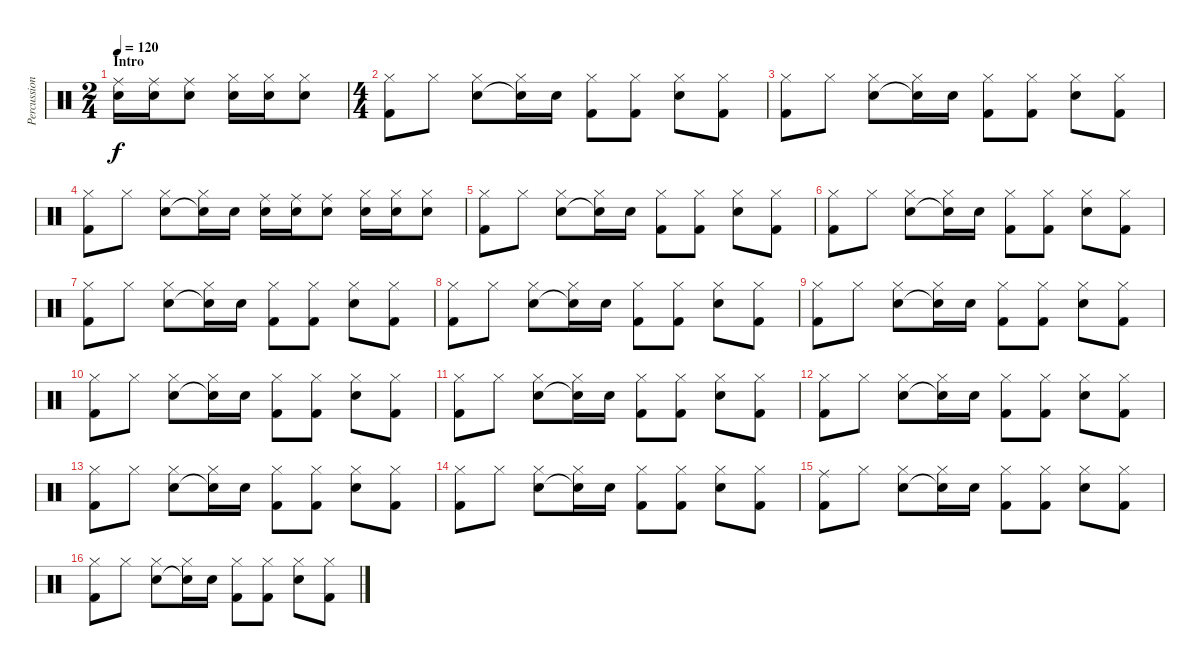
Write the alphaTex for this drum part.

\track ("Percussions" "Percussion") {instrument percussion}
\staff {score}
\articulation defaults
\ts (2 4)
\section ("" "Intro")
\tempo 120
\clef neutral
\ks c
("Ride (middle)" "Snare (hit) 2").16{dy f} ("Ride (middle)" "Snare (hit) 2").16 ("Ride (middle)" "Snare (hit) 2").8 ("Hi-Hat (closed)" "Snare (hit) 2").16 ("Hi-Hat (closed)" "Snare (hit) 2").16 ("Hi-Hat (closed)" "Snare (hit) 2").8 |
\ts (4 4)
("Hi-Hat (closed)" "Kick (hit) 2").8 "Hi-Hat (closed)".8 ("Hi-Hat (closed)" "Snare (hit) 2").8 ("Hi-Hat (closed)" "Snare (hit)"{t}).16 "Snare (hit) 2".16 ("Hi-Hat (closed)" "Kick (hit) 2").8 ("Hi-Hat (closed)" "Kick (hit) 2").8 ("Hi-Hat (closed)" "Snare (hit) 2").8 ("Hi-Hat (closed)" "Kick (hit) 2").8 |
("Hi-Hat (closed)" "Kick (hit) 2").8 "Hi-Hat (closed)".8 ("Hi-Hat (closed)" "Snare (hit) 2").8 ("Hi-Hat (closed)" "Snare (hit)"{t}).16 "Snare (hit) 2".16 ("Hi-Hat (closed)" "Kick (hit) 2").8 ("Hi-Hat (closed)" "Kick (hit) 2").8 ("Hi-Hat (closed)" "Snare (hit) 2").8 ("Hi-Hat (closed)" "Kick (hit) 2").8 |
("Hi-Hat (closed)" "Kick (hit) 2").8 "Hi-Hat (closed)".8 ("Hi-Hat (closed)" "Snare (hit) 2").8 ("Hi-Hat (closed)" "Snare (hit)"{t}).16 "Snare (hit) 2".16 ("Ride (middle)" "Snare (hit) 2").16 ("Ride (middle)" "Snare (hit) 2").16 ("Ride (middle)" "Snare (hit) 2").8 ("Hi-Hat (closed)" "Snare (hit) 2").16 ("Hi-Hat (closed)" "Snare (hit) 2").16 ("Hi-Hat (closed)" "Snare (hit) 2").8 |
("Hi-Hat (closed)" "Kick (hit) 2").8 "Hi-Hat (closed)".8 ("Hi-Hat (closed)" "Snare (hit) 2").8 ("Hi-Hat (closed)" "Snare (hit)"{t}).16 "Snare (hit) 2".16 ("Hi-Hat (closed)" "Kick (hit) 2").8 ("Hi-Hat (closed)" "Kick (hit) 2").8 ("Hi-Hat (closed)" "Snare (hit) 2").8 ("Hi-Hat (closed)" "Kick (hit) 2").8 |
("Hi-Hat (closed)" "Kick (hit) 2").8 "Hi-Hat (closed)".8 ("Hi-Hat (closed)" "Snare (hit) 2").8 ("Hi-Hat (closed)" "Snare (hit)"{t}).16 "Snare (hit) 2".16 ("Hi-Hat (closed)" "Kick (hit) 2").8 ("Hi-Hat (closed)" "Kick (hit) 2").8 ("Hi-Hat (closed)" "Snare (hit) 2").8 ("Hi-Hat (closed)" "Kick (hit) 2").8 |
("Hi-Hat (closed)" "Kick (hit) 2").8 "Hi-Hat (closed)".8 ("Hi-Hat (closed)" "Snare (hit) 2").8 ("Hi-Hat (closed)" "Snare (hit)"{t}).16 "Snare (hit) 2".16 ("Hi-Hat (closed)" "Kick (hit) 2").8 ("Hi-Hat (closed)" "Kick (hit) 2").8 ("Hi-Hat (closed)" "Snare (hit) 2").8 ("Hi-Hat (closed)" "Kick (hit) 2").8 |
("Hi-Hat (closed)" "Kick (hit) 2").8 "Hi-Hat (closed)".8 ("Hi-Hat (closed)" "Snare (hit) 2").8 ("Hi-Hat (closed)" "Snare (hit)"{t}).16 "Snare (hit) 2".16 ("Hi-Hat (closed)" "Kick (hit) 2").8 ("Hi-Hat (closed)" "Kick (hit) 2").8 ("Hi-Hat (closed)" "Snare (hit) 2").8 ("Hi-Hat (closed)" "Kick (hit) 2").8 |
("Hi-Hat (closed)" "Kick (hit) 2").8 "Hi-Hat (closed)".8 ("Hi-Hat (closed)" "Snare (hit) 2").8 ("Hi-Hat (closed)" "Snare (hit)"{t}).16 "Snare (hit) 2".16 ("Hi-Hat (closed)" "Kick (hit) 2").8 ("Hi-Hat (closed)" "Kick (hit) 2").8 ("Hi-Hat (closed)" "Snare (hit) 2").8 ("Hi-Hat (closed)" "Kick (hit) 2").8 |
("Hi-Hat (closed)" "Kick (hit) 2").8 "Hi-Hat (closed)".8 ("Hi-Hat (closed)" "Snare (hit) 2").8 ("Hi-Hat (closed)" "Snare (hit)"{t}).16 "Snare (hit) 2".16 ("Hi-Hat (closed)" "Kick (hit) 2").8 ("Hi-Hat (closed)" "Kick (hit) 2").8 ("Hi-Hat (closed)" "Snare (hit) 2").8 ("Hi-Hat (closed)" "Kick (hit) 2").8 |
("Hi-Hat (closed)" "Kick (hit) 2").8 "Hi-Hat (closed)".8 ("Hi-Hat (closed)" "Snare (hit) 2").8 ("Hi-Hat (closed)" "Snare (hit)"{t}).16 "Snare (hit) 2".16 ("Hi-Hat (closed)" "Kick (hit) 2").8 ("Hi-Hat (closed)" "Kick (hit) 2").8 ("Hi-Hat (closed)" "Snare (hit) 2").8 ("Hi-Hat (closed)" "Kick (hit) 2").8 |
("Hi-Hat (closed)" "Kick (hit) 2").8 "Hi-Hat (closed)".8 ("Hi-Hat (closed)" "Snare (hit) 2").8 ("Hi-Hat (closed)" "Snare (hit)"{t}).16 "Snare (hit) 2".16 ("Hi-Hat (closed)" "Kick (hit) 2").8 ("Hi-Hat (closed)" "Kick (hit) 2").8 ("Hi-Hat (closed)" "Snare (hit) 2").8 ("Hi-Hat (closed)" "Kick (hit) 2").8 |
("Hi-Hat (closed)" "Kick (hit) 2").8 "Hi-Hat (closed)".8 ("Hi-Hat (closed)" "Snare (hit) 2").8 ("Hi-Hat (closed)" "Snare (hit)"{t}).16 "Snare (hit) 2".16 ("Hi-Hat (closed)" "Kick (hit) 2").8 ("Hi-Hat (closed)" "Kick (hit) 2").8 ("Hi-Hat (closed)" "Snare (hit) 2").8 ("Hi-Hat (closed)" "Kick (hit) 2").8 |
("Hi-Hat (closed)" "Kick (hit) 2").8 "Hi-Hat (closed)".8 ("Hi-Hat (closed)" "Snare (hit) 2").8 ("Hi-Hat (closed)" "Snare (hit)"{t}).16 "Snare (hit) 2".16 ("Hi-Hat (closed)" "Kick (hit) 2").8 ("Hi-Hat (closed)" "Kick (hit) 2").8 ("Hi-Hat (closed)" "Snare (hit) 2").8 ("Hi-Hat (closed)" "Kick (hit) 2").8 |
("Ride (middle)" "Kick (hit) 2").8 "Hi-Hat (closed)".8 ("Hi-Hat (closed)" "Snare (hit) 2").8 ("Hi-Hat (closed)" "Snare (hit)"{t}).16 "Snare (hit) 2".16 ("Hi-Hat (closed)" "Kick (hit) 2").8 ("Hi-Hat (closed)" "Kick (hit) 2").8 ("Hi-Hat (closed)" "Snare (hit) 2").8 ("Hi-Hat (closed)" "Kick (hit) 2").8 |
("Hi-Hat (closed)" "Kick (hit) 2").8 "Hi-Hat (closed)".8 ("Hi-Hat (closed)" "Snare (hit) 2").8 ("Hi-Hat (closed)" "Snare (hit)"{t}).16 "Snare (hit) 2".16 ("Hi-Hat (closed)" "Kick (hit) 2").8 ("Hi-Hat (closed)" "Kick (hit) 2").8 ("Hi-Hat (closed)" "Snare (hit) 2").8 ("Hi-Hat (closed)" "Kick (hit) 2").8
